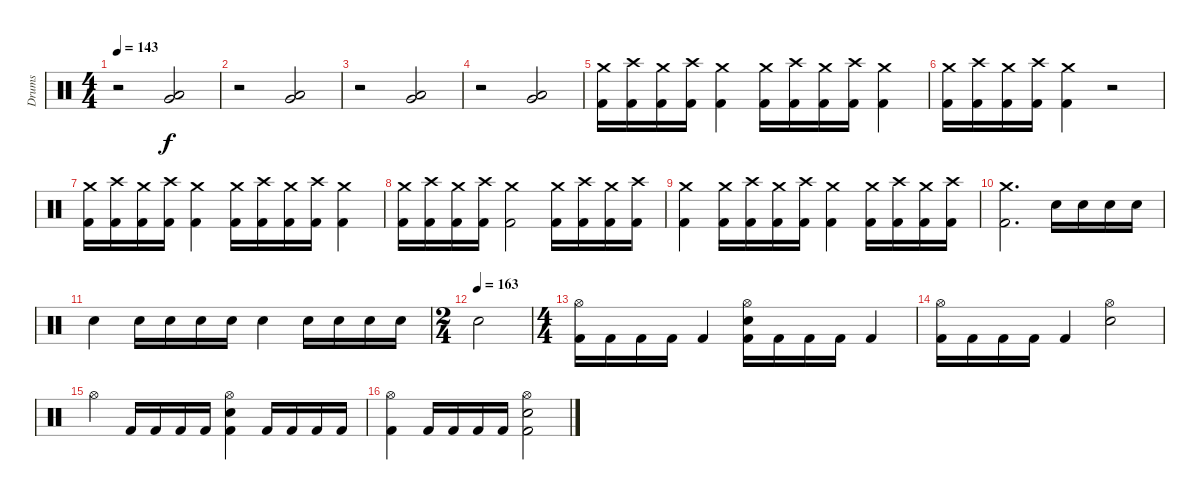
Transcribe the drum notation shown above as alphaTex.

\track ("Drums" "Drums") {instrument percussion}
\staff
\articulation defaults
\ts (4 4)
\tempo 143
\clef neutral
\ks c
r.2{dy f} ("Very Low Tom (hit)" "Low Floor Tom (hit)").2 |
r.2 ("Very Low Tom (hit)" "Low Floor Tom (hit)").2 |
r.2 ("Very Low Tom (hit)" "Low Floor Tom (hit)").2 |
r.2 ("Very Low Tom (hit)" "Low Floor Tom (hit)").2 |
("Crash medium (hit)" "Kick (hit) 2").16 ("Crash high (hit)" "Kick (hit) 2").16 ("Crash medium (hit)" "Kick (hit) 2").16 ("Crash high (hit)" "Kick (hit) 2").16 ("Crash medium (hit)" "Kick (hit) 2").4 ("Crash medium (hit)" "Kick (hit) 2").16 ("Crash high (hit)" "Kick (hit) 2").16 ("Crash medium (hit)" "Kick (hit) 2").16 ("Crash high (hit)" "Kick (hit) 2").16 ("Crash medium (hit)" "Kick (hit) 2").4 |
("Crash medium (hit)" "Kick (hit) 2").16 ("Crash high (hit)" "Kick (hit) 2").16 ("Crash medium (hit)" "Kick (hit) 2").16 ("Crash high (hit)" "Kick (hit) 2").16 ("Crash medium (hit)" "Kick (hit) 2").4 r.2 |
("Crash medium (hit)" "Kick (hit) 2").16 ("Crash high (hit)" "Kick (hit) 2").16 ("Crash medium (hit)" "Kick (hit) 2").16 ("Crash high (hit)" "Kick (hit) 2").16 ("Crash medium (hit)" "Kick (hit) 2").4 ("Crash medium (hit)" "Kick (hit) 2").16 ("Crash high (hit)" "Kick (hit) 2").16 ("Crash medium (hit)" "Kick (hit) 2").16 ("Crash high (hit)" "Kick (hit) 2").16 ("Crash medium (hit)" "Kick (hit) 2").4 |
("Crash medium (hit)" "Kick (hit) 2").16 ("Crash high (hit)" "Kick (hit) 2").16 ("Crash medium (hit)" "Kick (hit) 2").16 ("Crash high (hit)" "Kick (hit) 2").16 ("Crash medium (hit)" "Kick (hit) 2").2 ("Crash medium (hit)" "Kick (hit) 2").16 ("Crash high (hit)" "Kick (hit) 2").16 ("Crash medium (hit)" "Kick (hit) 2").16 ("Crash high (hit)" "Kick (hit) 2").16 |
("Crash medium (hit)" "Kick (hit) 2").4 ("Crash medium (hit)" "Kick (hit) 2").16 ("Crash high (hit)" "Kick (hit) 2").16 ("Crash medium (hit)" "Kick (hit) 2").16 ("Crash high (hit)" "Kick (hit) 2").16 ("Crash medium (hit)" "Kick (hit) 2").4 ("Crash medium (hit)" "Kick (hit) 2").16 ("Crash high (hit)" "Kick (hit) 2").16 ("Crash medium (hit)" "Kick (hit) 2").16 ("Crash high (hit)" "Kick (hit) 2").16 |
("Crash medium (hit)" "Kick (hit) 2").2{d} "Electric Snare (hit)".16 "Electric Snare (hit)".16 "Electric Snare (hit)".16 "Electric Snare (hit)".16 |
"Electric Snare (hit)".4 "Electric Snare (hit)".16 "Electric Snare (hit)".16 "Electric Snare (hit)".16 "Electric Snare (hit)".16 "Electric Snare (hit)".4 "Electric Snare (hit)".16 "Electric Snare (hit)".16 "Electric Snare (hit)".16 "Electric Snare (hit)".16 |
\ts (2 4)
\tempo (163)
"Electric Snare (hit)".2 |
\ts (4 4)
("Hi-Hat (open)" "Kick (hit) 2").16 "Kick (hit) 2".16 "Kick (hit) 2".16 "Kick (hit) 2".16 "Kick (hit) 2".4 ("Hi-Hat (open)" "Electric Snare (hit)" "Kick (hit) 2").16 "Kick (hit) 2".16 "Kick (hit) 2".16 "Kick (hit) 2".16 "Kick (hit) 2".4 |
("Hi-Hat (open)" "Kick (hit) 2").16 "Kick (hit) 2".16 "Kick (hit) 2".16 "Kick (hit) 2".16 "Kick (hit) 2".4 ("Hi-Hat (open)" "Electric Snare (hit)").2 |
"Hi-Hat (open)".4 "Kick (hit) 2".16 "Kick (hit) 2".16 "Kick (hit) 2".16 "Kick (hit) 2".16 ("Hi-Hat (open)" "Electric Snare (hit)" "Kick (hit) 2").4 "Kick (hit) 2".16 "Kick (hit) 2".16 "Kick (hit) 2".16 "Kick (hit) 2".16 |
("Hi-Hat (open)" "Kick (hit) 2").4 "Kick (hit) 2".16 "Kick (hit) 2".16 "Kick (hit) 2".16 "Kick (hit) 2".16 ("Hi-Hat (open)" "Electric Snare (hit)" "Kick (hit) 2").2
